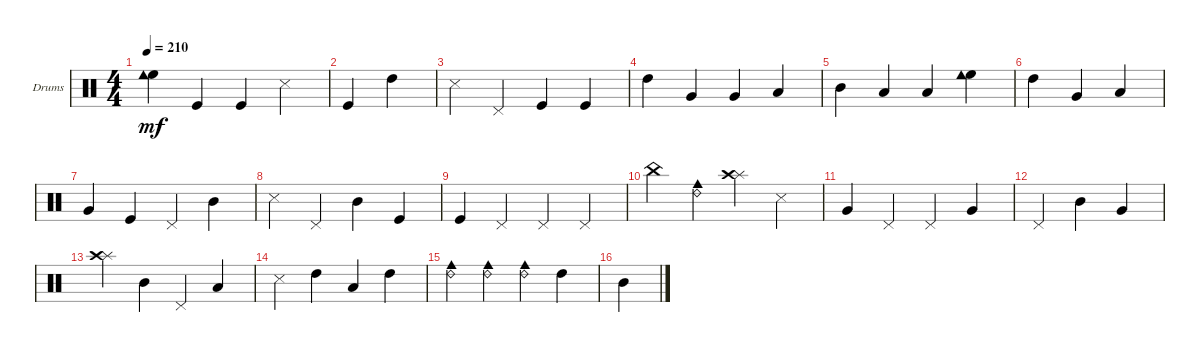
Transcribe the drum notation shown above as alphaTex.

\defaultSystemsLayout 4
\bracketExtendMode groupsimilarinstruments
\firstSystemTrackNameOrientation horizontal
\otherSystemsTrackNameOrientation horizontal
\track ("Drums" "Drums") {instrument percussion}
\staff {score}
\articulation defaults
\ts (4 4)
\tempo 210
\clef neutral
\scale
0.474178
\ks c
("High Floor Tom (hit)" "Cowbell low (hit)").4{dy mf} "Kick (hit)".4 "Kick (hit)".4 "Snare (side stick) 3".4 |
\scale
0.262911 "Kick (hit)".4 "High Tom (hit)".4 |
\scale
0.262911 "Snare (side stick) 3".4 "Pedal Hi-Hat (hit)".4 "Kick (hit)".4 "Kick (hit)".4 |
\scale
0.333333 "High Tom (hit)".4 "Very Low Tom (hit)".4 "Very Low Tom (hit)".4 "Low Tom (hit)".4 |
\scale
0.333333 "Mid Tom (hit)".4 "Low Tom (hit)".4 "Low Tom (hit)".4 ("High Floor Tom (hit)" "Cowbell low (hit)").4 |
\scale
0.333333 "High Tom (hit)".4 "Very Low Tom (hit)".4 "Low Tom (hit)".4 |
\scale
0.333333 "Very Low Tom (hit)".4 "Kick (hit)".4 "Pedal Hi-Hat (hit)".4 "Mid Tom (hit)".4 |
\scale
0.333333 "Snare (side stick) 3".4 "Pedal Hi-Hat (hit)".4 "Mid Tom (hit)".4 "Kick (hit)".4 |
\scale
0.333333 "Kick (hit)".4 "Pedal Hi-Hat (hit)".4 "Pedal Hi-Hat (hit)".4 "Pedal Hi-Hat (hit)".4 |
\scale
0.333333 "China (hit)".4 ("Cowbell medium (hit)" "Ride (bell) 2").4 ("Splash (hit)" "Crash high (hit)").4 "Snare (side stick) 3".4 |
\scale
0.333333 "Very Low Tom (hit)".4 "Pedal Hi-Hat (hit)".4 "Pedal Hi-Hat (hit)".4 "Very Low Tom (hit)".4 |
\scale
0.333333 "Pedal Hi-Hat (hit)".4 "Mid Tom (hit)".4 "Very Low Tom (hit)".4 |
\scale
0.333333 ("Splash (hit)" "Crash high (hit)").4 "Mid Tom (hit)".4 "Pedal Hi-Hat (hit)".4 "Low Tom (hit)".4 |
\scale
0.333333 "Snare (side stick) 3".4 "High Tom (hit)".4 "Low Tom (hit)".4 "High Tom (hit)".4 |
\scale
0.333333 ("Cowbell medium (hit)" "Ride (bell) 2").4 ("Ride (bell) 2" "Cowbell medium (hit)").4 ("Ride (bell) 2" "Cowbell medium (hit)").4 "High Tom (hit)".4 |
"Mid Tom (hit)".4
